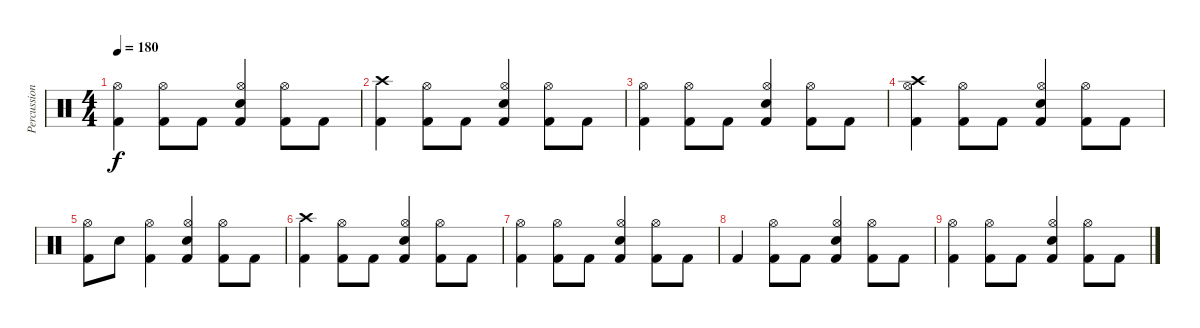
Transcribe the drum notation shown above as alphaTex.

\track ("Percussion" "Percussion") {instrument percussion}
\staff {score}
\articulation defaults
\ts (4 4)
\tempo 180
\clef neutral
\ks c
("Kick (hit) 2" "Hi-Hat (open)").4{dy f} ("Kick (hit) 2" "Hi-Hat (open)").8 "Kick (hit) 2".8 ("Kick (hit) 2" "Hi-Hat (open)" "Electric Snare (hit)").4 ("Kick (hit) 2" "Hi-Hat (open)").8 "Kick (hit) 2".8 |
("Kick (hit) 2" "Crash high (hit)").4 ("Kick (hit) 2" "Hi-Hat (open)").8 "Kick (hit) 2".8 ("Kick (hit) 2" "Hi-Hat (open)" "Electric Snare (hit)").4 ("Kick (hit) 2" "Hi-Hat (open)").8 "Kick (hit) 2".8 |
("Kick (hit) 2" "Hi-Hat (open)").4 ("Kick (hit) 2" "Hi-Hat (open)").8 "Kick (hit) 2".8 ("Kick (hit) 2" "Hi-Hat (open)" "Electric Snare (hit)").4 ("Kick (hit) 2" "Hi-Hat (open)").8 "Kick (hit) 2".8 |
("Kick (hit) 2" "Hi-Hat (open)" "Crash high (hit)").4 ("Kick (hit) 2" "Hi-Hat (open)").8 "Kick (hit) 2".8 ("Kick (hit) 2" "Hi-Hat (open)" "Electric Snare (hit)").4 ("Kick (hit) 2" "Hi-Hat (open)").8 "Kick (hit) 2".8 |
("Kick (hit) 2" "Hi-Hat (open)").8 "Electric Snare (hit)".8 ("Kick (hit) 2" "Hi-Hat (open)").4 ("Kick (hit) 2" "Hi-Hat (open)" "Electric Snare (hit)").4 ("Kick (hit) 2" "Hi-Hat (open)").8 "Kick (hit) 2".8 |
("Kick (hit) 2" "Crash high (hit)").4{volume 11} ("Kick (hit) 2" "Hi-Hat (open)").8 "Kick (hit) 2".8 ("Kick (hit) 2" "Hi-Hat (open)" "Electric Snare (hit)").4 ("Kick (hit) 2" "Hi-Hat (open)").8 "Kick (hit) 2".8 |
("Kick (hit) 2" "Hi-Hat (open)").4 ("Kick (hit) 2" "Hi-Hat (open)").8 "Kick (hit) 2".8 ("Kick (hit) 2" "Hi-Hat (open)" "Electric Snare (hit)").4 ("Kick (hit) 2" "Hi-Hat (open)").8 "Kick (hit) 2".8 |
"Kick (hit) 2".4{volume 6} ("Kick (hit) 2" "Hi-Hat (open)").8 "Kick (hit) 2".8 ("Kick (hit) 2" "Hi-Hat (open)" "Electric Snare (hit)").4 ("Kick (hit) 2" "Hi-Hat (open)").8 "Kick (hit) 2".8 |
("Kick (hit) 2" "Hi-Hat (open)").4{volume 1} ("Kick (hit) 2" "Hi-Hat (open)").8 "Kick (hit) 2".8 ("Kick (hit) 2" "Hi-Hat (open)" "Electric Snare (hit)").4 ("Kick (hit) 2" "Hi-Hat (open)").8 "Kick (hit) 2".8
